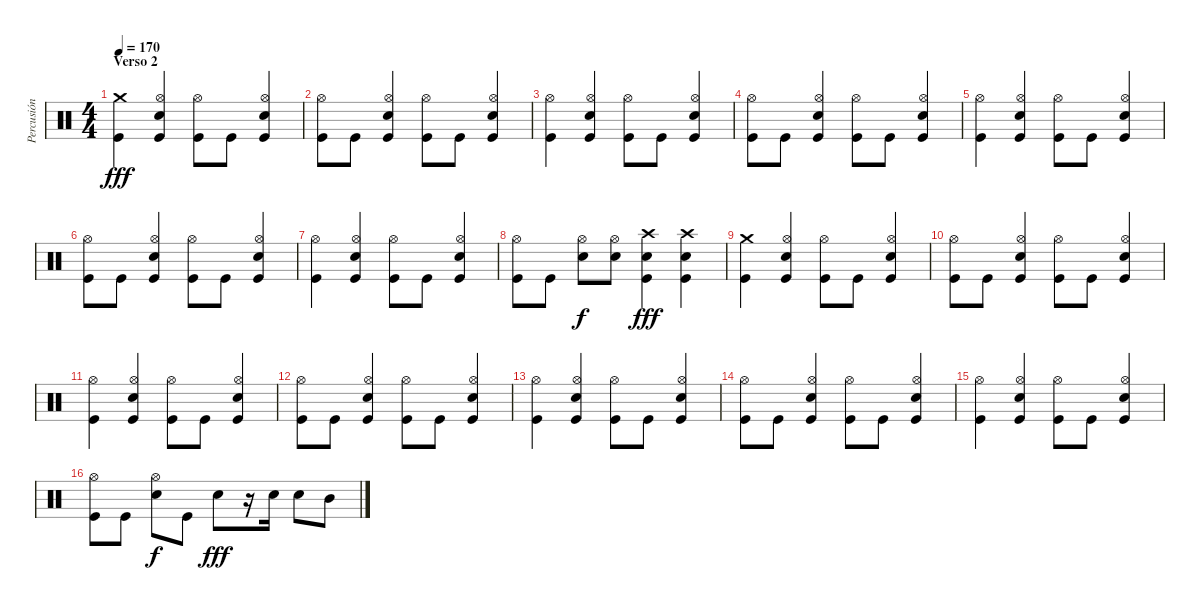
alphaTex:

\track ("Percusión" "Percusión") {instrument percussion}
\staff {score}
\articulation defaults
\ts (4 4)
\section ("" "Verso 2")
\tempo 170
\clef neutral
\ks c
("Crash medium (hit)" "Kick (hit)").4{dy fff} ("Hi-Hat (open)" "Electric Snare (hit)" "Kick (hit)").4 ("Hi-Hat (open)" "Kick (hit)").8 "Kick (hit)".8 ("Hi-Hat (open)" "Electric Snare (hit)" "Kick (hit)").4 |
("Hi-Hat (open)" "Kick (hit)").8 "Kick (hit)".8 ("Hi-Hat (open)" "Electric Snare (hit)" "Kick (hit)").4 ("Hi-Hat (open)" "Kick (hit)").8 "Kick (hit)".8 ("Hi-Hat (open)" "Electric Snare (hit)" "Kick (hit)").4 |
("Hi-Hat (open)" "Kick (hit)").4 ("Hi-Hat (open)" "Electric Snare (hit)" "Kick (hit)").4 ("Hi-Hat (open)" "Kick (hit)").8 "Kick (hit)".8 ("Hi-Hat (open)" "Electric Snare (hit)" "Kick (hit)").4 |
("Hi-Hat (open)" "Kick (hit)").8 "Kick (hit)".8 ("Hi-Hat (open)" "Electric Snare (hit)" "Kick (hit)").4 ("Hi-Hat (open)" "Kick (hit)").8 "Kick (hit)".8 ("Hi-Hat (open)" "Electric Snare (hit)" "Kick (hit)").4 |
("Hi-Hat (open)" "Kick (hit)").4 ("Hi-Hat (open)" "Electric Snare (hit)" "Kick (hit)").4 ("Hi-Hat (open)" "Kick (hit)").8 "Kick (hit)".8 ("Hi-Hat (open)" "Electric Snare (hit)" "Kick (hit)").4 |
("Hi-Hat (open)" "Kick (hit)").8 "Kick (hit)".8 ("Hi-Hat (open)" "Electric Snare (hit)" "Kick (hit)").4 ("Hi-Hat (open)" "Kick (hit)").8 "Kick (hit)".8 ("Hi-Hat (open)" "Electric Snare (hit)" "Kick (hit)").4 |
("Hi-Hat (open)" "Kick (hit)").4 ("Hi-Hat (open)" "Electric Snare (hit)" "Kick (hit)").4 ("Hi-Hat (open)" "Kick (hit)").8 "Kick (hit)".8 ("Hi-Hat (open)" "Electric Snare (hit)" "Kick (hit)").4 |
("Hi-Hat (open)" "Kick (hit)").8 "Kick (hit)".8 ("Hi-Hat (open)" "Electric Snare (hit)").8{dy f} ("Hi-Hat (open)" "Electric Snare (hit)").8 ("Crash high (hit)" "Electric Snare (hit)" "Kick (hit)").4{dy fff} ("Crash high (hit)" "Electric Snare (hit)" "Kick (hit)").4 |
("Crash medium (hit)" "Kick (hit)").4 ("Hi-Hat (open)" "Electric Snare (hit)" "Kick (hit)").4 ("Hi-Hat (open)" "Kick (hit)").8 "Kick (hit)".8 ("Hi-Hat (open)" "Electric Snare (hit)" "Kick (hit)").4 |
("Hi-Hat (open)" "Kick (hit)").8 "Kick (hit)".8 ("Hi-Hat (open)" "Electric Snare (hit)" "Kick (hit)").4 ("Hi-Hat (open)" "Kick (hit)").8 "Kick (hit)".8 ("Hi-Hat (open)" "Electric Snare (hit)" "Kick (hit)").4 |
("Hi-Hat (open)" "Kick (hit)").4 ("Hi-Hat (open)" "Electric Snare (hit)" "Kick (hit)").4 ("Hi-Hat (open)" "Kick (hit)").8 "Kick (hit)".8 ("Hi-Hat (open)" "Electric Snare (hit)" "Kick (hit)").4 |
("Hi-Hat (open)" "Kick (hit)").8 "Kick (hit)".8 ("Hi-Hat (open)" "Electric Snare (hit)" "Kick (hit)").4 ("Hi-Hat (open)" "Kick (hit)").8 "Kick (hit)".8 ("Hi-Hat (open)" "Electric Snare (hit)" "Kick (hit)").4 |
("Hi-Hat (open)" "Kick (hit)").4 ("Hi-Hat (open)" "Electric Snare (hit)" "Kick (hit)").4 ("Hi-Hat (open)" "Kick (hit)").8 "Kick (hit)".8 ("Hi-Hat (open)" "Electric Snare (hit)" "Kick (hit)").4 |
("Hi-Hat (open)" "Kick (hit)").8 "Kick (hit)".8 ("Hi-Hat (open)" "Electric Snare (hit)" "Kick (hit)").4 ("Hi-Hat (open)" "Kick (hit)").8 "Kick (hit)".8 ("Hi-Hat (open)" "Electric Snare (hit)" "Kick (hit)").4 |
("Hi-Hat (open)" "Kick (hit)").4 ("Hi-Hat (open)" "Electric Snare (hit)" "Kick (hit)").4 ("Hi-Hat (open)" "Kick (hit)").8 "Kick (hit)".8 ("Hi-Hat (open)" "Electric Snare (hit)" "Kick (hit)").4 |
("Hi-Hat (open)" "Kick (hit)").8 "Kick (hit)".8 ("Hi-Hat (open)" "Electric Snare (hit)").8{dy f} "Kick (hit)".8 "Electric Snare (hit)".8{dy fff} r.16 "Electric Snare (hit)".16 "Electric Snare (hit)".8 "Mid Tom (hit)".8
